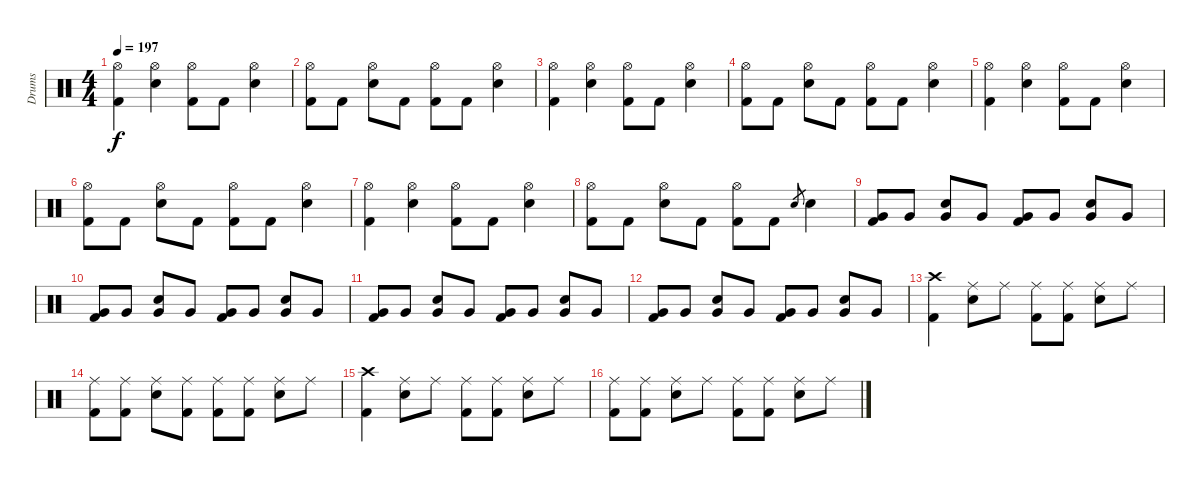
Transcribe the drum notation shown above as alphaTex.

\track ("Drums" "Drums") {instrument percussion}
\staff {score}
\articulation defaults
\ts (4 4)
\tempo 197
\clef neutral
\ks c
("Hi-Hat (open)" "Kick (hit) 2").4{dy f} ("Hi-Hat (open)" "Electric Snare (hit)").4 ("Hi-Hat (open)" "Kick (hit) 2").8 "Kick (hit) 2".8 ("Hi-Hat (open)" "Electric Snare (hit)").4 |
("Hi-Hat (open)" "Kick (hit) 2").8 "Kick (hit) 2".8 ("Hi-Hat (open)" "Electric Snare (hit)").8 "Kick (hit) 2".8 ("Hi-Hat (open)" "Kick (hit) 2").8 "Kick (hit) 2".8 ("Hi-Hat (open)" "Electric Snare (hit)").4 |
("Hi-Hat (open)" "Kick (hit) 2").4 ("Hi-Hat (open)" "Electric Snare (hit)").4 ("Hi-Hat (open)" "Kick (hit) 2").8 "Kick (hit) 2".8 ("Hi-Hat (open)" "Electric Snare (hit)").4 |
("Hi-Hat (open)" "Kick (hit) 2").8 "Kick (hit) 2".8 ("Hi-Hat (open)" "Electric Snare (hit)").8 "Kick (hit) 2".8 ("Hi-Hat (open)" "Kick (hit) 2").8 "Kick (hit) 2".8 ("Hi-Hat (open)" "Electric Snare (hit)").4 |
("Hi-Hat (open)" "Kick (hit) 2").4 ("Hi-Hat (open)" "Electric Snare (hit)").4 ("Hi-Hat (open)" "Kick (hit) 2").8 "Kick (hit) 2".8 ("Hi-Hat (open)" "Electric Snare (hit)").4 |
("Hi-Hat (open)" "Kick (hit) 2").8 "Kick (hit) 2".8 ("Hi-Hat (open)" "Electric Snare (hit)").8 "Kick (hit) 2".8 ("Hi-Hat (open)" "Kick (hit) 2").8 "Kick (hit) 2".8 ("Hi-Hat (open)" "Electric Snare (hit)").4 |
("Hi-Hat (open)" "Kick (hit) 2").4 ("Hi-Hat (open)" "Electric Snare (hit)").4 ("Hi-Hat (open)" "Kick (hit) 2").8 "Kick (hit) 2".8 ("Hi-Hat (open)" "Electric Snare (hit)").4 |
("Hi-Hat (open)" "Kick (hit) 2").8 "Kick (hit) 2".8 ("Hi-Hat (open)" "Electric Snare (hit)").8 "Kick (hit) 2".8 ("Hi-Hat (open)" "Kick (hit) 2").8 "Kick (hit) 2".8 "Electric Snare (hit)".8{gr} "Electric Snare (hit)".4 |
("Very Low Tom (hit)" "Kick (hit) 2").8 "Very Low Tom (hit)".8 ("Electric Snare (hit)" "Very Low Tom (hit)").8 "Very Low Tom (hit)".8 ("Very Low Tom (hit)" "Kick (hit) 2").8 "Very Low Tom (hit)".8 ("Electric Snare (hit)" "Very Low Tom (hit)").8 "Very Low Tom (hit)".8 |
("Very Low Tom (hit)" "Kick (hit) 2").8 "Very Low Tom (hit)".8 ("Electric Snare (hit)" "Very Low Tom (hit)").8 "Very Low Tom (hit)".8 ("Very Low Tom (hit)" "Kick (hit) 2").8 "Very Low Tom (hit)".8 ("Electric Snare (hit)" "Very Low Tom (hit)").8 "Very Low Tom (hit)".8 |
("Very Low Tom (hit)" "Kick (hit) 2").8 "Very Low Tom (hit)".8 ("Electric Snare (hit)" "Very Low Tom (hit)").8 "Very Low Tom (hit)".8 ("Very Low Tom (hit)" "Kick (hit) 2").8 "Very Low Tom (hit)".8 ("Electric Snare (hit)" "Very Low Tom (hit)").8 "Very Low Tom (hit)".8 |
("Very Low Tom (hit)" "Kick (hit) 2").8 "Very Low Tom (hit)".8 ("Electric Snare (hit)" "Very Low Tom (hit)").8 "Very Low Tom (hit)".8 ("Very Low Tom (hit)" "Kick (hit) 2").8 "Very Low Tom (hit)".8 ("Electric Snare (hit)" "Very Low Tom (hit)").8 "Very Low Tom (hit)".8 |
("Crash high (hit)" "Kick (hit) 2").4 ("Ride (middle)" "Electric Snare (hit)").8 "Ride (middle)".8 ("Ride (middle)" "Kick (hit) 2").8 ("Ride (middle)" "Kick (hit) 2").8 ("Ride (middle)" "Electric Snare (hit)").8 "Ride (middle)".8 |
("Ride (middle)" "Kick (hit) 2").8 ("Ride (middle)" "Kick (hit) 2").8 ("Ride (middle)" "Electric Snare (hit)").8 ("Ride (middle)" "Kick (hit) 2").8 ("Ride (middle)" "Kick (hit) 2").8 ("Ride (middle)" "Kick (hit) 2").8 ("Ride (middle)" "Electric Snare (hit)").8 "Ride (middle)".8 |
("Crash high (hit)" "Kick (hit) 2").4 ("Ride (middle)" "Electric Snare (hit)").8 "Ride (middle)".8 ("Ride (middle)" "Kick (hit) 2").8 ("Ride (middle)" "Kick (hit) 2").8 ("Ride (middle)" "Electric Snare (hit)").8 "Ride (middle)".8 |
("Ride (middle)" "Kick (hit) 2").8 ("Ride (middle)" "Kick (hit) 2").8 ("Ride (middle)" "Electric Snare (hit)").8 "Ride (middle)".8 ("Ride (middle)" "Kick (hit) 2").8 ("Ride (middle)" "Kick (hit) 2").8 ("Ride (middle)" "Electric Snare (hit)").8 "Ride (middle)".8
